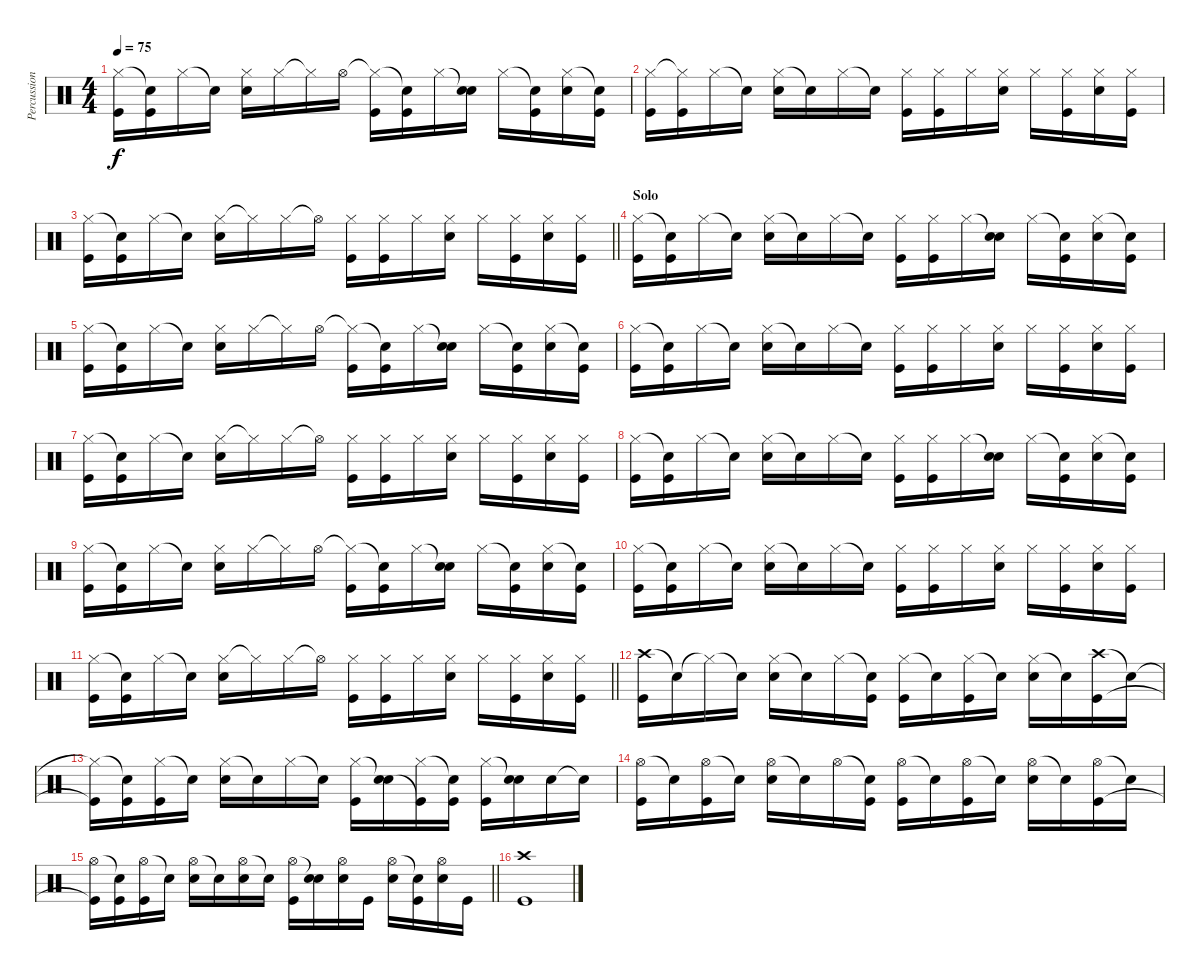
\track ("Percussion" "Percussion") {instrument percussion}
\staff {score}
\articulation defaults
\ts (4 4)
\tempo 75
\clef neutral
\ks c
("Hi-Hat (closed)" "Kick (hit)").16{dy f} ("Snare (hit)"{t} "Kick (hit)").16 "Hi-Hat (closed)".16 "Snare (hit)"{t}.16 ("Hi-Hat (closed)" "Electric Snare (hit)").16 "Hi-Hat (closed)".16 "Hi-Hat (closed)"{t}.16 "Hi-Hat (open)".16 ("Hi-Hat (closed)"{t} "Kick (hit)").16 ("Snare (hit)"{t} "Kick (hit)").16 "Hi-Hat (closed)".16 ("Snare (hit)"{t} "Electric Snare (hit)").16 "Hi-Hat (closed)".16 ("Snare (hit)"{t} "Kick (hit)").16 ("Hi-Hat (closed)" "Electric Snare (hit)").16 ("Snare (hit)"{t} "Kick (hit)").16 |
("Hi-Hat (closed)" "Kick (hit)").16 ("Hi-Hat (closed)"{t} "Kick (hit)").16 "Hi-Hat (closed)".16 "Snare (hit)"{t}.16 ("Hi-Hat (closed)" "Electric Snare (hit)").16 "Snare (hit)"{t}.16 "Hi-Hat (closed)".16 "Snare (hit)"{t}.16 ("Hi-Hat (closed)" "Kick (hit)").16 ("Hi-Hat (closed)" "Kick (hit)").16 "Hi-Hat (closed)".16 ("Hi-Hat (closed)" "Electric Snare (hit)").16 "Hi-Hat (closed)".16 ("Hi-Hat (closed)" "Kick (hit)").16 ("Hi-Hat (closed)" "Electric Snare (hit)").16 ("Hi-Hat (closed)" "Kick (hit)").16 |
\barLineRight lightlight
("Hi-Hat (closed)" "Kick (hit)").16 ("Snare (hit)"{t} "Kick (hit)").16 "Hi-Hat (closed)".16 "Snare (hit)"{t}.16 ("Hi-Hat (closed)" "Electric Snare (hit)").16 "Hi-Hat (closed)"{t}.16 "Hi-Hat (closed)".16 "Hi-Hat (open)"{t}.16 ("Hi-Hat (closed)" "Kick (hit)").16 ("Hi-Hat (closed)" "Kick (hit)").16 "Hi-Hat (closed)".16 ("Hi-Hat (closed)" "Electric Snare (hit)").16 "Hi-Hat (closed)".16 ("Hi-Hat (closed)" "Kick (hit)").16 ("Hi-Hat (closed)" "Electric Snare (hit)").16 ("Hi-Hat (closed)" "Kick (hit)").16 |
\section ("" "Solo")
("Hi-Hat (closed)" "Kick (hit)").16 ("Snare (hit)"{t} "Kick (hit)").16 "Hi-Hat (closed)".16 "Snare (hit)"{t}.16 ("Hi-Hat (closed)" "Electric Snare (hit)").16 "Snare (hit)"{t}.16 "Hi-Hat (closed)".16 "Snare (hit)"{t}.16 ("Hi-Hat (closed)" "Kick (hit)").16 ("Hi-Hat (closed)" "Kick (hit)").16 "Hi-Hat (closed)".16 ("Snare (hit)"{t} "Electric Snare (hit)").16 "Hi-Hat (closed)".16 ("Snare (hit)"{t} "Kick (hit)").16 ("Hi-Hat (closed)" "Electric Snare (hit)").16 ("Snare (hit)"{t} "Kick (hit)").16 |
("Hi-Hat (closed)" "Kick (hit)").16 ("Snare (hit)"{t} "Kick (hit)").16 "Hi-Hat (closed)".16 "Snare (hit)"{t}.16 ("Hi-Hat (closed)" "Electric Snare (hit)").16 "Hi-Hat (closed)".16 "Hi-Hat (closed)"{t}.16 "Hi-Hat (open)".16 ("Hi-Hat (closed)"{t} "Kick (hit)").16 ("Snare (hit)"{t} "Kick (hit)").16 "Hi-Hat (closed)".16 ("Snare (hit)"{t} "Electric Snare (hit)").16 "Hi-Hat (closed)".16 ("Snare (hit)"{t} "Kick (hit)").16 ("Hi-Hat (closed)" "Electric Snare (hit)").16 ("Snare (hit)"{t} "Kick (hit)").16 |
("Hi-Hat (closed)" "Kick (hit)").16 ("Snare (hit)"{t} "Kick (hit)").16 "Hi-Hat (closed)".16 "Snare (hit)"{t}.16 ("Hi-Hat (closed)" "Electric Snare (hit)").16 "Snare (hit)"{t}.16 "Hi-Hat (closed)".16 "Snare (hit)"{t}.16 ("Hi-Hat (closed)" "Kick (hit)").16 ("Hi-Hat (closed)" "Kick (hit)").16 "Hi-Hat (closed)".16 ("Hi-Hat (closed)" "Electric Snare (hit)").16 "Hi-Hat (closed)".16 ("Hi-Hat (closed)" "Kick (hit)").16 ("Hi-Hat (closed)" "Electric Snare (hit)").16 ("Hi-Hat (closed)" "Kick (hit)").16 |
("Hi-Hat (closed)" "Kick (hit)").16 ("Snare (hit)"{t} "Kick (hit)").16 "Hi-Hat (closed)".16 "Snare (hit)"{t}.16 ("Hi-Hat (closed)" "Electric Snare (hit)").16 "Hi-Hat (closed)"{t}.16 "Hi-Hat (closed)".16 "Hi-Hat (open)"{t}.16 ("Hi-Hat (closed)" "Kick (hit)").16 ("Hi-Hat (closed)" "Kick (hit)").16 "Hi-Hat (closed)".16 ("Hi-Hat (closed)" "Electric Snare (hit)").16 "Hi-Hat (closed)".16 ("Hi-Hat (closed)" "Kick (hit)").16 ("Hi-Hat (closed)" "Electric Snare (hit)").16 ("Hi-Hat (closed)" "Kick (hit)").16 |
("Hi-Hat (closed)" "Kick (hit)").16 ("Snare (hit)"{t} "Kick (hit)").16 "Hi-Hat (closed)".16 "Snare (hit)"{t}.16 ("Hi-Hat (closed)" "Electric Snare (hit)").16 "Snare (hit)"{t}.16 "Hi-Hat (closed)".16 "Snare (hit)"{t}.16 ("Hi-Hat (closed)" "Kick (hit)").16 ("Hi-Hat (closed)" "Kick (hit)").16 "Hi-Hat (closed)".16 ("Snare (hit)"{t} "Electric Snare (hit)").16 "Hi-Hat (closed)".16 ("Snare (hit)"{t} "Kick (hit)").16 ("Hi-Hat (closed)" "Electric Snare (hit)").16 ("Snare (hit)"{t} "Kick (hit)").16 |
("Hi-Hat (closed)" "Kick (hit)").16 ("Snare (hit)"{t} "Kick (hit)").16 "Hi-Hat (closed)".16 "Snare (hit)"{t}.16 ("Hi-Hat (closed)" "Electric Snare (hit)").16 "Hi-Hat (closed)".16 "Hi-Hat (closed)"{t}.16 "Hi-Hat (open)".16 ("Hi-Hat (closed)"{t} "Kick (hit)").16 ("Snare (hit)"{t} "Kick (hit)").16 "Hi-Hat (closed)".16 ("Snare (hit)"{t} "Electric Snare (hit)").16 "Hi-Hat (closed)".16 ("Snare (hit)"{t} "Kick (hit)").16 ("Hi-Hat (closed)" "Electric Snare (hit)").16 ("Snare (hit)"{t} "Kick (hit)").16 |
("Hi-Hat (closed)" "Kick (hit)").16 ("Snare (hit)"{t} "Kick (hit)").16 "Hi-Hat (closed)".16 "Snare (hit)"{t}.16 ("Hi-Hat (closed)" "Electric Snare (hit)").16 "Snare (hit)"{t}.16 "Hi-Hat (closed)".16 "Snare (hit)"{t}.16 ("Hi-Hat (closed)" "Kick (hit)").16 ("Hi-Hat (closed)" "Kick (hit)").16 "Hi-Hat (closed)".16 ("Hi-Hat (closed)" "Electric Snare (hit)").16 "Hi-Hat (closed)".16 ("Hi-Hat (closed)" "Kick (hit)").16 ("Hi-Hat (closed)" "Electric Snare (hit)").16 ("Hi-Hat (closed)" "Kick (hit)").16 |
\barLineRight lightlight
("Hi-Hat (closed)" "Kick (hit)").16 ("Snare (hit)"{t} "Kick (hit)").16 "Hi-Hat (closed)".16 "Snare (hit)"{t}.16 ("Hi-Hat (closed)" "Electric Snare (hit)").16 "Hi-Hat (closed)"{t}.16 "Hi-Hat (closed)".16 "Hi-Hat (open)"{t}.16 ("Hi-Hat (closed)" "Kick (hit)").16 ("Hi-Hat (closed)" "Kick (hit)").16 "Hi-Hat (closed)".16 ("Hi-Hat (closed)" "Electric Snare (hit)").16 "Hi-Hat (closed)".16 ("Hi-Hat (closed)" "Kick (hit)").16 ("Hi-Hat (closed)" "Electric Snare (hit)").16 ("Hi-Hat (closed)" "Kick (hit)").16 |
("Crash high (hit)" "Kick (hit)").16 "Snare (hit)"{t}.16 "Hi-Hat (closed)"{t}.16 "Snare (hit)"{t}.16 ("Hi-Hat (closed)" "Electric Snare (hit)").16 "Snare (hit)"{t}.16 "Hi-Hat (closed)".16 ("Snare (hit)"{t} "Kick (hit)").16 ("Hi-Hat (closed)" "Kick (hit)").16 "Snare (hit)"{t}.16 ("Hi-Hat (closed)" "Kick (hit)").16 "Snare (hit)"{t}.16 ("Hi-Hat (closed)" "Electric Snare (hit)").16 "Snare (hit)"{t}.16 ("Crash high (hit)" "Kick (hit)").16 "Snare (hit)"{t}.16 |
("Hi-Hat (closed)"{t} "Kick (hit)"{t}).16 ("Snare (hit)"{t} "Kick (hit)").16 ("Hi-Hat (closed)" "Kick (hit)").16 "Snare (hit)"{t}.16 ("Hi-Hat (closed)" "Electric Snare (hit)").16 "Snare (hit)"{t}.16 "Hi-Hat (closed)".16 "Snare (hit)"{t}.16 ("Hi-Hat (closed)" "Kick (hit)").16 ("Snare (hit)"{t} "Electric Snare (hit)").16 ("Hi-Hat (closed)" "Kick (hit)"{t}).16 ("Snare (hit)"{t} "Kick (hit)").16 ("Hi-Hat (closed)" "Kick (hit)").16 ("Snare (hit)"{t} "Electric Snare (hit)").16 "Electric Snare (hit)".16 "Electric Snare (hit)"{t}.16 |
("Hi-Hat (open)" "Kick (hit)").16 "Snare (hit)"{t}.16 ("Hi-Hat (open)" "Kick (hit)").16 "Snare (hit)"{t}.16 ("Hi-Hat (open)" "Electric Snare (hit)").16 "Snare (hit)"{t}.16 "Hi-Hat (open)".16 ("Snare (hit)"{t} "Kick (hit)").16 ("Hi-Hat (open)" "Kick (hit)").16 "Snare (hit)"{t}.16 ("Hi-Hat (open)" "Kick (hit)").16 "Snare (hit)"{t}.16 ("Hi-Hat (open)" "Electric Snare (hit)").16 "Snare (hit)"{t}.16 ("Hi-Hat (open)" "Kick (hit)").16 "Snare (hit)"{t}.16 |
\barLineRight lightlight
("Hi-Hat (open)" "Kick (hit)"{t}).16 ("Snare (hit)"{t} "Kick (hit)").16 ("Hi-Hat (open)" "Kick (hit)").16 "Snare (hit)"{t}.16 ("Hi-Hat (open)" "Electric Snare (hit)").16 "Snare (hit)"{t}.16 ("Hi-Hat (open)" "Electric Snare (hit)").16 "Snare (hit)"{t}.16 ("Hi-Hat (open)" "Kick (hit)").16 ("Snare (hit)"{t} "Electric Snare (hit)").16 ("Hi-Hat (open)" "Electric Snare (hit)").16 "Kick (hit)".16 ("Hi-Hat (open)" "Electric Snare (hit)").16 ("Snare (hit)"{t} "Kick (hit)").16 ("Hi-Hat (open)" "Electric Snare (hit)").16 "Kick (hit)".16 |
("Crash high (hit)" "Kick (hit)").1
